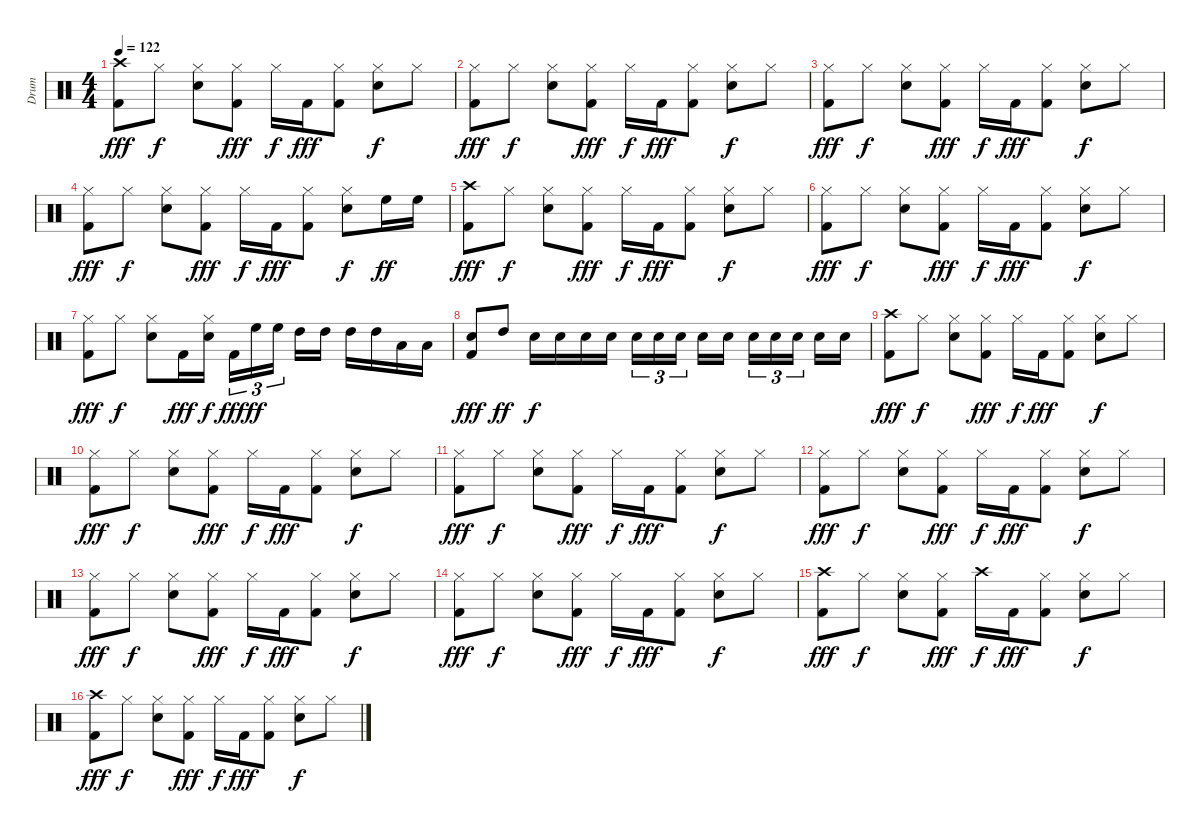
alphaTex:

\track ("Drum" "Drum") {instrument percussion}
\staff {score}
\articulation defaults
\ts (4 4)
\tempo 122
\clef neutral
\ks c
("Crash high (hit)" "Kick (hit) 2").8{dy fff} "Hi-Hat (closed)".8{dy f} ("Hi-Hat (closed)" "Snare (hit) 2").8 ("Hi-Hat (closed)" "Kick (hit) 2").8{dy fff} "Hi-Hat (closed)".16{dy f} "Kick (hit) 2".16{dy fff} ("Hi-Hat (closed)" "Kick (hit) 2").8 ("Hi-Hat (closed)" "Snare (hit) 2").8{dy f} "Hi-Hat (closed)".8 |
("Hi-Hat (closed)" "Kick (hit) 2").8{dy fff} "Hi-Hat (closed)".8{dy f} ("Hi-Hat (closed)" "Snare (hit) 2").8 ("Hi-Hat (closed)" "Kick (hit) 2").8{dy fff} "Hi-Hat (closed)".16{dy f} "Kick (hit) 2".16{dy fff} ("Hi-Hat (closed)" "Kick (hit) 2").8 ("Hi-Hat (closed)" "Snare (hit) 2").8{dy f} "Hi-Hat (closed)".8 |
("Hi-Hat (closed)" "Kick (hit) 2").8{dy fff} "Hi-Hat (closed)".8{dy f} ("Hi-Hat (closed)" "Snare (hit) 2").8 ("Hi-Hat (closed)" "Kick (hit) 2").8{dy fff} "Hi-Hat (closed)".16{dy f} "Kick (hit) 2".16{dy fff} ("Hi-Hat (closed)" "Kick (hit) 2").8 ("Hi-Hat (closed)" "Snare (hit) 2").8{dy f} "Hi-Hat (closed)".8 |
("Hi-Hat (closed)" "Kick (hit) 2").8{dy fff} "Hi-Hat (closed)".8{dy f} ("Hi-Hat (closed)" "Snare (hit) 2").8 ("Hi-Hat (closed)" "Kick (hit) 2").8{dy fff} "Hi-Hat (closed)".16{dy f} "Kick (hit) 2".16{dy fff} ("Hi-Hat (closed)" "Kick (hit) 2").8 ("Hi-Hat (closed)" "Snare (hit) 2").8{dy f} "High Floor Tom (hit)".16{dy ff} "High Floor Tom (hit)".16 |
("Crash high (hit)" "Kick (hit) 2").8{dy fff} "Hi-Hat (closed)".8{dy f} ("Hi-Hat (closed)" "Snare (hit) 2").8 ("Hi-Hat (closed)" "Kick (hit) 2").8{dy fff} "Hi-Hat (closed)".16{dy f} "Kick (hit) 2".16{dy fff} ("Hi-Hat (closed)" "Kick (hit) 2").8 ("Hi-Hat (closed)" "Snare (hit) 2").8{dy f} "Hi-Hat (closed)".8 |
("Hi-Hat (closed)" "Kick (hit) 2").8{dy fff} "Hi-Hat (closed)".8{dy f} ("Hi-Hat (closed)" "Snare (hit) 2").8 ("Hi-Hat (closed)" "Kick (hit) 2").8{dy fff} "Hi-Hat (closed)".16{dy f} "Kick (hit) 2".16{dy fff} ("Hi-Hat (closed)" "Kick (hit) 2").8 ("Hi-Hat (closed)" "Snare (hit) 2").8{dy f} "Hi-Hat (closed)".8 |
("Hi-Hat (closed)" "Kick (hit) 2").8{dy fff} "Hi-Hat (closed)".8{dy f} ("Hi-Hat (closed)" "Snare (hit) 2").8 "Kick (hit) 2".16{dy fff} ("Hi-Hat (closed)" "Snare (hit) 2").16{dy f} "Kick (hit) 2".16{tu (3 2) dy fff} "High Floor Tom (hit)".16{tu (3 2) dy ff} "High Floor Tom (hit)".16{tu (3 2)} "High Tom (hit)".16 "High Tom (hit)".16 "High Tom (hit)".16 "High Tom (hit)".16 "Low Tom (hit)".16 "Low Tom (hit)".16 |
("Snare (hit) 2" "Kick (hit) 2").8{dy fff} "High Tom (hit)".8{dy ff} "Snare (hit) 2".16{dy f} "Snare (hit) 2".16 "Snare (hit) 2".16 "Snare (hit) 2".16 "Snare (hit) 2".16{tu (3 2)} "Snare (hit) 2".16{tu (3 2)} "Snare (hit) 2".16{tu (3 2)} "Snare (hit) 2".16 "Snare (hit) 2".16 "Snare (hit) 2".16{tu (3 2)} "Snare (hit) 2".16{tu (3 2)} "Snare (hit) 2".16{tu (3 2)} "Snare (hit) 2".16 "Snare (hit) 2".16 |
("Crash high (hit)" "Kick (hit) 2").8{dy fff} "Hi-Hat (closed)".8{dy f} ("Hi-Hat (closed)" "Snare (hit) 2").8 ("Hi-Hat (closed)" "Kick (hit) 2").8{dy fff} "Hi-Hat (closed)".16{dy f} "Kick (hit) 2".16{dy fff} ("Hi-Hat (closed)" "Kick (hit) 2").8 ("Hi-Hat (closed)" "Snare (hit) 2").8{dy f} "Hi-Hat (closed)".8 |
("Hi-Hat (closed)" "Kick (hit) 2").8{dy fff} "Hi-Hat (closed)".8{dy f} ("Hi-Hat (closed)" "Snare (hit) 2").8 ("Hi-Hat (closed)" "Kick (hit) 2").8{dy fff} "Hi-Hat (closed)".16{dy f} "Kick (hit) 2".16{dy fff} ("Hi-Hat (closed)" "Kick (hit) 2").8 ("Hi-Hat (closed)" "Snare (hit) 2").8{dy f} "Hi-Hat (closed)".8 |
("Hi-Hat (closed)" "Kick (hit) 2").8{dy fff} "Hi-Hat (closed)".8{dy f} ("Hi-Hat (closed)" "Snare (hit) 2").8 ("Hi-Hat (closed)" "Kick (hit) 2").8{dy fff} "Hi-Hat (closed)".16{dy f} "Kick (hit) 2".16{dy fff} ("Hi-Hat (closed)" "Kick (hit) 2").8 ("Hi-Hat (closed)" "Snare (hit) 2").8{dy f} "Hi-Hat (closed)".8 |
("Hi-Hat (closed)" "Kick (hit) 2").8{dy fff} "Hi-Hat (closed)".8{dy f} ("Hi-Hat (closed)" "Snare (hit) 2").8 ("Hi-Hat (closed)" "Kick (hit) 2").8{dy fff} "Hi-Hat (closed)".16{dy f} "Kick (hit) 2".16{dy fff} ("Hi-Hat (closed)" "Kick (hit) 2").8 ("Hi-Hat (closed)" "Snare (hit) 2").8{dy f} "Hi-Hat (closed)".8 |
("Hi-Hat (closed)" "Kick (hit) 2").8{dy fff} "Hi-Hat (closed)".8{dy f} ("Hi-Hat (closed)" "Snare (hit) 2").8 ("Hi-Hat (closed)" "Kick (hit) 2").8{dy fff} "Hi-Hat (closed)".16{dy f} "Kick (hit) 2".16{dy fff} ("Hi-Hat (closed)" "Kick (hit) 2").8 ("Hi-Hat (closed)" "Snare (hit) 2").8{dy f} "Hi-Hat (closed)".8 |
("Hi-Hat (closed)" "Kick (hit) 2").8{dy fff} "Hi-Hat (closed)".8{dy f} ("Hi-Hat (closed)" "Snare (hit) 2").8 ("Hi-Hat (closed)" "Kick (hit) 2").8{dy fff} "Hi-Hat (closed)".16{dy f} "Kick (hit) 2".16{dy fff} ("Hi-Hat (closed)" "Kick (hit) 2").8 ("Hi-Hat (closed)" "Snare (hit) 2").8{dy f} "Hi-Hat (closed)".8 |
("Crash high (hit)" "Kick (hit) 2").8{dy fff} "Hi-Hat (closed)".8{dy f} ("Hi-Hat (closed)" "Snare (hit) 2").8 ("Hi-Hat (closed)" "Kick (hit) 2").8{dy fff} "Crash high (hit)".16{dy f} "Kick (hit) 2".16{dy fff} ("Hi-Hat (closed)" "Kick (hit) 2").8 ("Hi-Hat (closed)" "Snare (hit) 2").8{dy f} "Hi-Hat (closed)".8 |
("Crash high (hit)" "Kick (hit) 2").8{dy fff} "Hi-Hat (closed)".8{dy f} ("Hi-Hat (closed)" "Snare (hit) 2").8 ("Hi-Hat (closed)" "Kick (hit) 2").8{dy fff} "Hi-Hat (closed)".16{dy f} "Kick (hit) 2".16{dy fff} ("Hi-Hat (closed)" "Kick (hit) 2").8 ("Hi-Hat (closed)" "Snare (hit) 2").8{dy f} "Hi-Hat (closed)".8
